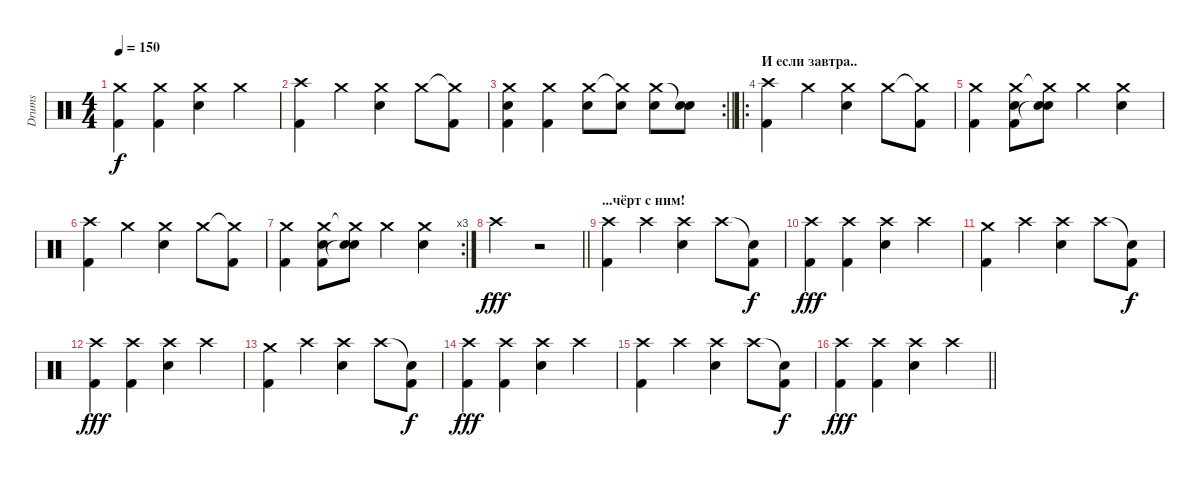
\track ("Drums" "Drums") {instrument percussion}
\staff {score}
\articulation defaults
\ts (4 4)
\tempo 150
\clef neutral
\ks c
("Crash medium (hit)" "Kick (hit) 2").4{dy f} ("Crash medium (hit)" "Kick (hit) 2").4 ("Crash medium (hit)" "Electric Snare (hit)").4 "Crash medium (hit)".4 |
("Crash high (hit)" "Kick (hit) 2").4 "Crash medium (hit)".4 ("Crash medium (hit)" "Electric Snare (hit)").4 "Crash medium (hit)".8 ("Crash medium (hit)"{t} "Kick (hit) 2").8 |
\rc 2
\barLineRight lightlight
("Crash medium (hit)" "Kick (hit) 2" "Electric Snare (hit)").4 ("Crash medium (hit)" "Kick (hit) 2").4 ("Crash medium (hit)" "Electric Snare (hit)").8 ("Crash medium (hit)"{t} "Electric Snare (hit)").8 ("Crash medium (hit)" "Electric Snare (hit)").8 ("Snare (hit)"{t} "Electric Snare (hit)").8 |
\ro
\section ("" "И если завтра..")
("Crash high (hit)" "Kick (hit) 2").4 "Crash medium (hit)".4 ("Crash medium (hit)" "Electric Snare (hit)").4 "Crash medium (hit)".8 ("Crash medium (hit)"{t} "Kick (hit) 2").8 |
("Crash medium (hit)" "Kick (hit) 2").4 ("Crash medium (hit)" "Kick (hit) 2" "Electric Snare (hit)").8 ("Crash medium (hit)"{t} "Snare (hit)"{t} "Electric Snare (hit)").8 "Crash medium (hit)".4 ("Crash medium (hit)" "Electric Snare (hit)").4 |
("Crash high (hit)" "Kick (hit) 2").4 "Crash medium (hit)".4 ("Crash medium (hit)" "Electric Snare (hit)").4 "Crash medium (hit)".8 ("Crash medium (hit)"{t} "Kick (hit) 2").8 |
\rc 3
("Crash medium (hit)" "Kick (hit) 2").4 ("Crash medium (hit)" "Kick (hit) 2" "Electric Snare (hit)").8 ("Crash medium (hit)"{t} "Snare (hit)"{t} "Electric Snare (hit)").8 "Crash medium (hit)".4 ("Crash medium (hit)" "Electric Snare (hit)").4 |
\barLineRight lightlight "Crash high (hit)".2{dy fff}
r.2 |
\section ("" "...чёрт с ним!")
("Crash high (hit)" "Kick (hit) 2").4 "Crash high (hit)".4 ("Crash high (hit)" "Electric Snare (hit)").4 "Crash high (hit)".8 ("Snare (hit)"{t} "Kick (hit) 2").8{dy f} |
("Crash high (hit)" "Kick (hit) 2").4{dy fff} ("Crash high (hit)" "Kick (hit) 2").4 ("Crash high (hit)" "Electric Snare (hit)").4 "Crash high (hit)".4 |
("Crash medium (hit)" "Kick (hit) 2").4 "Crash high (hit)".4 ("Crash high (hit)" "Electric Snare (hit)").4 "Crash high (hit)".8 ("Snare (hit)"{t} "Kick (hit) 2").8{dy f} |
("Crash high (hit)" "Kick (hit) 2").4{dy fff} ("Crash high (hit)" "Kick (hit) 2").4 ("Crash high (hit)" "Electric Snare (hit)").4 "Crash high (hit)".4 |
("Crash medium (hit)" "Kick (hit) 2").4 "Crash high (hit)".4 ("Crash high (hit)" "Electric Snare (hit)").4 "Crash high (hit)".8 ("Snare (hit)"{t} "Kick (hit) 2").8{dy f} |
("Crash high (hit)" "Kick (hit) 2").4{dy fff} ("Crash high (hit)" "Kick (hit) 2").4 ("Crash high (hit)" "Electric Snare (hit)").4 "Crash high (hit)".4 |
("Crash high (hit)" "Kick (hit) 2").4 "Crash high (hit)".4 ("Crash high (hit)" "Electric Snare (hit)").4 "Crash high (hit)".8 ("Snare (hit)"{t} "Kick (hit) 2").8{dy f} |
\barLineRight lightlight
("Crash high (hit)" "Kick (hit) 2").4{dy fff} ("Crash high (hit)" "Kick (hit) 2").4 ("Crash high (hit)" "Electric Snare (hit)").4 "Crash high (hit)".4
